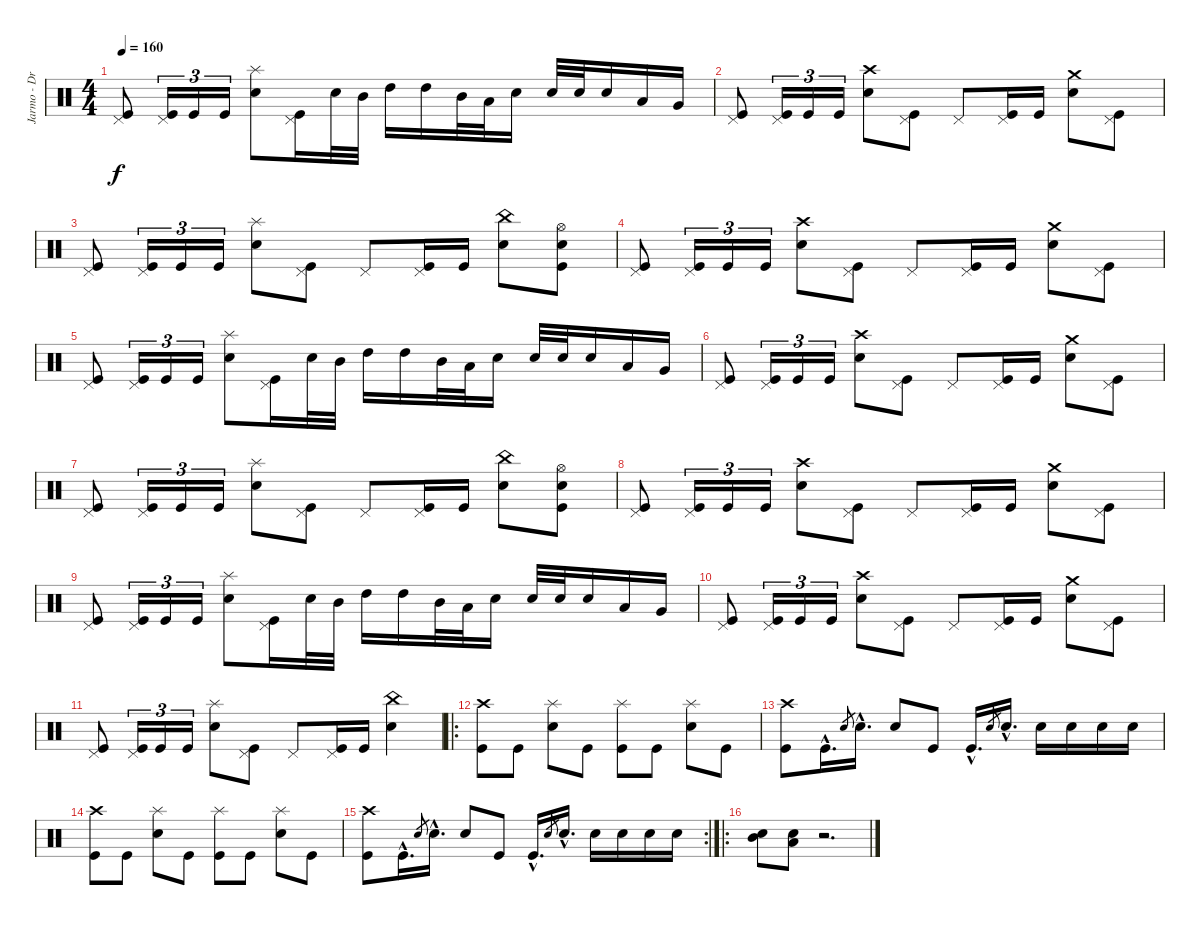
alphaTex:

\track ("Jarmo - Drums" "Jarmo - Dr") {instrument percussion}
\staff {score}
\articulation defaults
\ts (4 4)
\tempo 160
\clef neutral
\ks c
("Kick (hit)" "Pedal Hi-Hat (hit)").8{dy f} ("Kick (hit)" "Pedal Hi-Hat (hit)").16{tu (3 2)} "Kick (hit)".16{tu (3 2)} "Kick (hit)".16{tu (3 2)} ("Electric Snare (hit)" "Splash (hit)").8 ("Kick (hit)" "Pedal Hi-Hat (hit)").16 "Electric Snare (hit)".32 "Mid Tom (hit)".32 "High Tom (hit)".16 "High Tom (hit)".16 "Mid Tom (hit)".32 "Low Tom (hit)".32 "Electric Snare (hit)".16 "Electric Snare (hit)".32 "Electric Snare (hit)".32 "Electric Snare (hit)".16 "Low Tom (hit)".16 "Very Low Tom (hit)".16 |
("Kick (hit)" "Pedal Hi-Hat (hit)").8 ("Kick (hit)" "Pedal Hi-Hat (hit)").16{tu (3 2)} "Kick (hit)".16{tu (3 2)} "Kick (hit)".16{tu (3 2)} ("Electric Snare (hit)" "Crash high (hit)").8 ("Kick (hit)" "Pedal Hi-Hat (hit)").8 "Pedal Hi-Hat (hit)".8 ("Kick (hit)" "Pedal Hi-Hat (hit)").16 "Kick (hit)".16 ("Electric Snare (hit)" "Crash medium (hit)").8 ("Kick (hit)" "Pedal Hi-Hat (hit)").8 |
("Kick (hit)" "Pedal Hi-Hat (hit)").8 ("Kick (hit)" "Pedal Hi-Hat (hit)").16{tu (3 2)} "Kick (hit)".16{tu (3 2)} "Kick (hit)".16{tu (3 2)} ("Electric Snare (hit)" "Splash (hit)").8 ("Kick (hit)" "Pedal Hi-Hat (hit)").8 "Pedal Hi-Hat (hit)".8 ("Kick (hit)" "Pedal Hi-Hat (hit)").16 "Kick (hit)".16 ("Electric Snare (hit)" "China (hit)").8 ("Kick (hit)" "Electric Snare (hit)" "Hi-Hat (open)").8 |
("Kick (hit)" "Pedal Hi-Hat (hit)").8 ("Kick (hit)" "Pedal Hi-Hat (hit)").16{tu (3 2)} "Kick (hit)".16{tu (3 2)} "Kick (hit)".16{tu (3 2)} ("Electric Snare (hit)" "Crash high (hit)").8 ("Kick (hit)" "Pedal Hi-Hat (hit)").8 "Pedal Hi-Hat (hit)".8 ("Kick (hit)" "Pedal Hi-Hat (hit)").16 "Kick (hit)".16 ("Electric Snare (hit)" "Crash medium (hit)").8 ("Kick (hit)" "Pedal Hi-Hat (hit)").8 |
("Kick (hit)" "Pedal Hi-Hat (hit)").8 ("Kick (hit)" "Pedal Hi-Hat (hit)").16{tu (3 2)} "Kick (hit)".16{tu (3 2)} "Kick (hit)".16{tu (3 2)} ("Electric Snare (hit)" "Splash (hit)").8 ("Kick (hit)" "Pedal Hi-Hat (hit)").16 "Electric Snare (hit)".32 "Mid Tom (hit)".32 "High Tom (hit)".16 "High Tom (hit)".16 "Mid Tom (hit)".32 "Low Tom (hit)".32 "Electric Snare (hit)".16 "Electric Snare (hit)".32 "Electric Snare (hit)".32 "Electric Snare (hit)".16 "Low Tom (hit)".16 "Very Low Tom (hit)".16 |
("Kick (hit)" "Pedal Hi-Hat (hit)").8 ("Kick (hit)" "Pedal Hi-Hat (hit)").16{tu (3 2)} "Kick (hit)".16{tu (3 2)} "Kick (hit)".16{tu (3 2)} ("Electric Snare (hit)" "Crash high (hit)").8 ("Kick (hit)" "Pedal Hi-Hat (hit)").8 "Pedal Hi-Hat (hit)".8 ("Kick (hit)" "Pedal Hi-Hat (hit)").16 "Kick (hit)".16 ("Electric Snare (hit)" "Crash medium (hit)").8 ("Kick (hit)" "Pedal Hi-Hat (hit)").8 |
("Kick (hit)" "Pedal Hi-Hat (hit)").8 ("Kick (hit)" "Pedal Hi-Hat (hit)").16{tu (3 2)} "Kick (hit)".16{tu (3 2)} "Kick (hit)".16{tu (3 2)} ("Electric Snare (hit)" "Splash (hit)").8 ("Kick (hit)" "Pedal Hi-Hat (hit)").8 "Pedal Hi-Hat (hit)".8 ("Kick (hit)" "Pedal Hi-Hat (hit)").16 "Kick (hit)".16 ("Electric Snare (hit)" "China (hit)").8 ("Kick (hit)" "Electric Snare (hit)" "Hi-Hat (open)").8 |
("Kick (hit)" "Pedal Hi-Hat (hit)").8 ("Kick (hit)" "Pedal Hi-Hat (hit)").16{tu (3 2)} "Kick (hit)".16{tu (3 2)} "Kick (hit)".16{tu (3 2)} ("Electric Snare (hit)" "Crash high (hit)").8 ("Kick (hit)" "Pedal Hi-Hat (hit)").8 "Pedal Hi-Hat (hit)".8 ("Kick (hit)" "Pedal Hi-Hat (hit)").16 "Kick (hit)".16 ("Electric Snare (hit)" "Crash medium (hit)").8 ("Kick (hit)" "Pedal Hi-Hat (hit)").8 |
("Kick (hit)" "Pedal Hi-Hat (hit)").8 ("Kick (hit)" "Pedal Hi-Hat (hit)").16{tu (3 2)} "Kick (hit)".16{tu (3 2)} "Kick (hit)".16{tu (3 2)} ("Electric Snare (hit)" "Splash (hit)").8 ("Kick (hit)" "Pedal Hi-Hat (hit)").16 "Electric Snare (hit)".32 "Mid Tom (hit)".32 "High Tom (hit)".16 "High Tom (hit)".16 "Mid Tom (hit)".32 "Low Tom (hit)".32 "Electric Snare (hit)".16 "Electric Snare (hit)".32 "Electric Snare (hit)".32 "Electric Snare (hit)".16 "Low Tom (hit)".16 "Very Low Tom (hit)".16 |
("Kick (hit)" "Pedal Hi-Hat (hit)").8 ("Kick (hit)" "Pedal Hi-Hat (hit)").16{tu (3 2)} "Kick (hit)".16{tu (3 2)} "Kick (hit)".16{tu (3 2)} ("Electric Snare (hit)" "Crash high (hit)").8 ("Kick (hit)" "Pedal Hi-Hat (hit)").8 "Pedal Hi-Hat (hit)".8 ("Kick (hit)" "Pedal Hi-Hat (hit)").16 "Kick (hit)".16 ("Electric Snare (hit)" "Crash medium (hit)").8 ("Kick (hit)" "Pedal Hi-Hat (hit)").8 |
("Kick (hit)" "Pedal Hi-Hat (hit)").8 ("Kick (hit)" "Pedal Hi-Hat (hit)").16{tu (3 2)} "Kick (hit)".16{tu (3 2)} "Kick (hit)".16{tu (3 2)} ("Electric Snare (hit)" "Splash (hit)").8 ("Kick (hit)" "Pedal Hi-Hat (hit)").8 "Pedal Hi-Hat (hit)".8 ("Kick (hit)" "Pedal Hi-Hat (hit)").16 "Kick (hit)".16 ("Electric Snare (hit)" "China (hit)").4 |
\ro
("Kick (hit)" "Crash high (hit)").8 "Kick (hit)".8 ("Electric Snare (hit)" "Splash (hit)").8 "Kick (hit)".8 ("Kick (hit)" "Splash (hit)").8 "Kick (hit)".8 ("Electric Snare (hit)" "Splash (hit)").8 "Kick (hit)".8 |
("Kick (hit)" "Crash high (hit)").8 "Kick (hit)"{hac}.16{d} "Snare (hit) 2"{h}.8{gr} "Electric Snare (hit)"{hac}.16{d} "Electric Snare (hit)".8 "Kick (hit)".8 "Kick (hit)"{hac}.16{d} "Snare (hit) 2"{h}.8{gr} "Electric Snare (hit)"{hac}.16{d} "Electric Snare (hit)".16 "Electric Snare (hit)".16 "Electric Snare (hit)".16 "Electric Snare (hit)".16 |
("Kick (hit)" "Crash high (hit)").8 "Kick (hit)".8 ("Electric Snare (hit)" "Splash (hit)").8 "Kick (hit)".8 ("Kick (hit)" "Splash (hit)").8 "Kick (hit)".8 ("Electric Snare (hit)" "Splash (hit)").8 "Kick (hit)".8 |
\rc 2
("Kick (hit)" "Crash high (hit)").8 "Kick (hit)"{hac}.16{d} "Snare (hit) 2"{h}.8{gr} "Electric Snare (hit)"{hac}.16{d} "Electric Snare (hit)".8 "Kick (hit)".8 "Kick (hit)"{hac}.16{d} "Snare (hit) 2"{h}.8{gr} "Electric Snare (hit)"{hac}.16{d} "Electric Snare (hit)".16 "Electric Snare (hit)".16 "Electric Snare (hit)".16 "Electric Snare (hit)".16 |
\ro
("Mid Tom (hit)" "Electric Snare (hit)").8 ("Low Tom (hit)" "Electric Snare (hit)").8 r.2{d}
